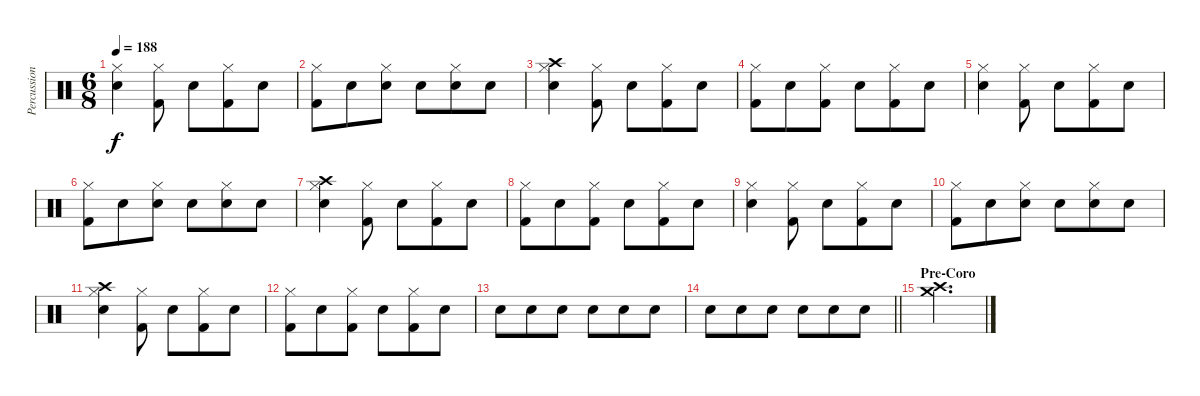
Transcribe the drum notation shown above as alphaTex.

\track ("Percussion" "Percussion") {instrument percussion}
\staff {score}
\articulation defaults
\ts (6 8)
\tempo 188
\clef neutral
\ks c
("Hi-Hat (closed)" "Snare (hit) 2").4{dy f} ("Hi-Hat (closed)" "Kick (hit) 2").8 "Electric Snare (hit)".8 ("Hi-Hat (closed)" "Kick (hit) 2").8 "Electric Snare (hit)".8 |
("Hi-Hat (closed)" "Kick (hit) 2").8 "Electric Snare (hit)".8 ("Hi-Hat (closed)" "Electric Snare (hit)").8 "Electric Snare (hit)".8 ("Hi-Hat (closed)" "Electric Snare (hit)").8 "Electric Snare (hit)".8 |
("Hi-Hat (closed)" "Crash high (hit)" "Snare (hit) 2").4 ("Hi-Hat (closed)" "Kick (hit) 2").8 "Electric Snare (hit)".8 ("Hi-Hat (closed)" "Kick (hit) 2").8 "Electric Snare (hit)".8 |
("Hi-Hat (closed)" "Kick (hit) 2").8 "Electric Snare (hit)".8 ("Hi-Hat (closed)" "Kick (hit) 2").8 "Electric Snare (hit)".8 ("Hi-Hat (closed)" "Kick (hit) 2").8 "Electric Snare (hit)".8 |
("Hi-Hat (closed)" "Snare (hit) 2").4 ("Hi-Hat (closed)" "Kick (hit) 2").8 "Electric Snare (hit)".8 ("Hi-Hat (closed)" "Kick (hit) 2").8 "Electric Snare (hit)".8 |
("Hi-Hat (closed)" "Kick (hit) 2").8 "Electric Snare (hit)".8 ("Hi-Hat (closed)" "Electric Snare (hit)").8 "Electric Snare (hit)".8 ("Hi-Hat (closed)" "Electric Snare (hit)").8 "Electric Snare (hit)".8 |
("Hi-Hat (closed)" "Crash high (hit)" "Snare (hit) 2").4 ("Hi-Hat (closed)" "Kick (hit) 2").8 "Electric Snare (hit)".8 ("Hi-Hat (closed)" "Kick (hit) 2").8 "Electric Snare (hit)".8 |
("Hi-Hat (closed)" "Kick (hit) 2").8 "Electric Snare (hit)".8 ("Hi-Hat (closed)" "Kick (hit) 2").8 "Electric Snare (hit)".8 ("Hi-Hat (closed)" "Kick (hit) 2").8 "Electric Snare (hit)".8 |
("Hi-Hat (closed)" "Snare (hit) 2").4 ("Hi-Hat (closed)" "Kick (hit) 2").8 "Electric Snare (hit)".8 ("Hi-Hat (closed)" "Kick (hit) 2").8 "Electric Snare (hit)".8 |
("Hi-Hat (closed)" "Kick (hit) 2").8 "Electric Snare (hit)".8 ("Hi-Hat (closed)" "Electric Snare (hit)").8 "Electric Snare (hit)".8 ("Hi-Hat (closed)" "Electric Snare (hit)").8 "Electric Snare (hit)".8 |
("Hi-Hat (closed)" "Crash high (hit)" "Snare (hit) 2").4 ("Hi-Hat (closed)" "Kick (hit) 2").8 "Electric Snare (hit)".8 ("Hi-Hat (closed)" "Kick (hit) 2").8 "Electric Snare (hit)".8 |
("Hi-Hat (closed)" "Kick (hit) 2").8 "Electric Snare (hit)".8 ("Hi-Hat (closed)" "Kick (hit) 2").8 "Electric Snare (hit)".8 ("Hi-Hat (closed)" "Kick (hit) 2").8 "Electric Snare (hit)".8 |
"Snare (hit) 2".8 "Snare (hit) 2".8 "Snare (hit) 2".8 "Snare (hit) 2".8 "Snare (hit) 2".8 "Snare (hit) 2".8 |
\barLineRight lightlight "Snare (hit) 2".8 "Snare (hit) 2".8 "Snare (hit) 2".8 "Snare (hit) 2".8 "Snare (hit) 2".8 "Snare (hit) 2".8
|
\section ("" "Pre-Coro")
("Crash high (hit)" "Crash medium (hit)").2{d}
